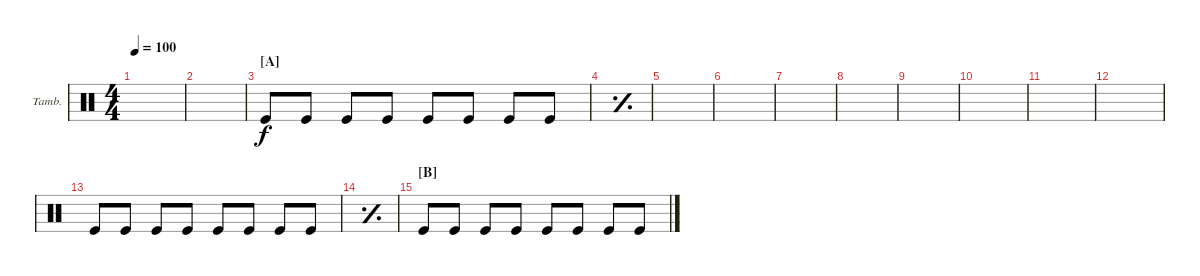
\defaultSystemsLayout 4
\bracketExtendMode groupsimilarinstruments
\firstSystemTrackNameOrientation horizontal
\otherSystemsTrackNameOrientation horizontal
\track ("Robert Plant" "Tamb.") {instrument percussion}
\staff {score}
\articulation defaults
\ts (4 4)
\tempo 100
\clef neutral
\scale
0.474178
\ks c
|
\section ("" "")
\scale
0.262911 |
\section ("A" "")
\scale
0.262911 "Kick (hit)".8 "Kick (hit)".8 "Kick (hit)".8 "Kick (hit)".8 "Kick (hit)".8 "Kick (hit)".8 "Kick (hit)".8 "Kick (hit)".8 |
\simile simple
|
|
|
|
|
|
|
|
\simile none
|
"Kick (hit)".8 "Kick (hit)".8 "Kick (hit)".8 "Kick (hit)".8 "Kick (hit)".8 "Kick (hit)".8 "Kick (hit)".8 "Kick (hit)".8 |
\simile simple
|
\section ("B" "")
\simile none "Kick (hit)".8 "Kick (hit)".8 "Kick (hit)".8 "Kick (hit)".8 "Kick (hit)".8 "Kick (hit)".8 "Kick (hit)".8 "Kick (hit)".8
